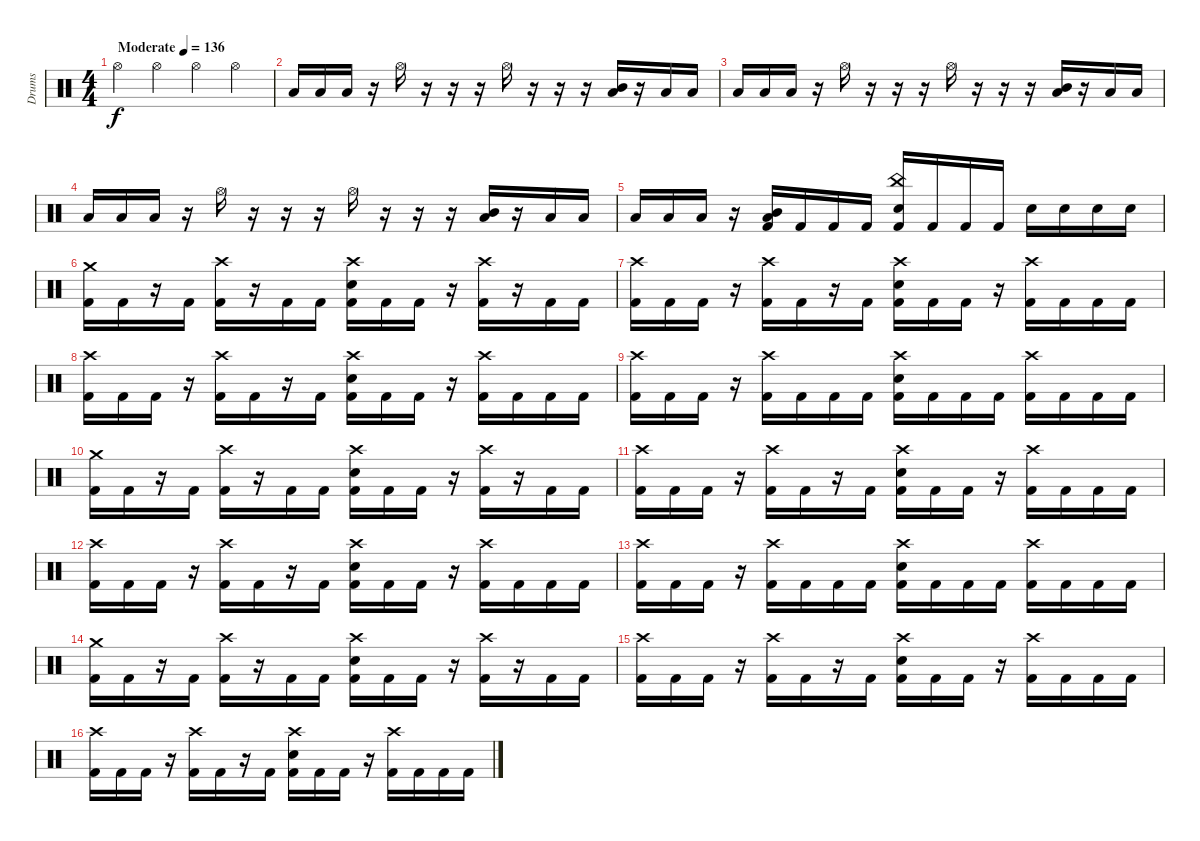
\track ("Drums" "Drums") {instrument percussion}
\staff {score}
\articulation defaults
\ts (4 4)
\tempo (136 "Moderate")
\clef neutral
\ks c "Hi-Hat (open)".4{dy f} "Hi-Hat (open)".4 "Hi-Hat (open)".4 "Hi-Hat (open)".4
|
"Low Tom (hit)".16 "Low Tom (hit)".16 "Low Tom (hit)".16 r.16 "Hi-Hat (open)".16 r.16 r.16 r.16 "Hi-Hat (open)".16 r.16 r.16 r.16 ("Mid Tom (hit)" "Low Tom (hit)").16 r.16 "Low Tom (hit)".16 "Low Tom (hit)".16 |
"Low Tom (hit)".16 "Low Tom (hit)".16 "Low Tom (hit)".16 r.16 "Hi-Hat (open)".16 r.16 r.16 r.16 "Hi-Hat (open)".16 r.16 r.16 r.16 ("Mid Tom (hit)" "Low Tom (hit)").16 r.16 "Low Tom (hit)".16 "Low Tom (hit)".16 |
"Low Tom (hit)".16 "Low Tom (hit)".16 "Low Tom (hit)".16 r.16 "Hi-Hat (open)".16 r.16 r.16 r.16 "Hi-Hat (open)".16 r.16 r.16 r.16 ("Mid Tom (hit)" "Low Tom (hit)").16 r.16 "Low Tom (hit)".16 "Low Tom (hit)".16 |
"Low Tom (hit)".16 "Low Tom (hit)".16 "Low Tom (hit)".16 r.16 ("Mid Tom (hit)" "Low Tom (hit)" "Kick (hit) 2").16 "Kick (hit) 2".16 "Kick (hit) 2".16 "Kick (hit) 2".16 ("China (hit)" "Snare (hit) 2" "Kick (hit) 2").16 "Kick (hit) 2".16 "Kick (hit) 2".16 "Kick (hit) 2".16 "Snare (hit) 2".16 "Snare (hit) 2".16 "Snare (hit) 2".16 "Snare (hit) 2".16 |
("Crash medium (hit)" "Kick (hit) 2").16 "Kick (hit) 2".16 r.16 "Kick (hit) 2".16 ("Crash high (hit)" "Kick (hit) 2").16 r.16 "Kick (hit) 2".16 "Kick (hit) 2".16 ("Crash high (hit)" "Snare (hit) 2" "Kick (hit) 2").16 "Kick (hit) 2".16 "Kick (hit) 2".16 r.16 ("Crash high (hit)" "Kick (hit) 2").16 r.16 "Kick (hit) 2".16 "Kick (hit) 2".16 |
("Crash high (hit)" "Kick (hit) 2").16 "Kick (hit) 2".16 "Kick (hit) 2".16 r.16 ("Crash high (hit)" "Kick (hit) 2").16 "Kick (hit) 2".16 r.16 "Kick (hit) 2".16 ("Crash high (hit)" "Snare (hit) 2" "Kick (hit) 2").16 "Kick (hit) 2".16 "Kick (hit) 2".16 r.16 ("Crash high (hit)" "Kick (hit) 2").16 "Kick (hit) 2".16 "Kick (hit) 2".16 "Kick (hit) 2".16 |
("Crash high (hit)" "Kick (hit) 2").16 "Kick (hit) 2".16 "Kick (hit) 2".16 r.16 ("Crash high (hit)" "Kick (hit) 2").16 "Kick (hit) 2".16 r.16 "Kick (hit) 2".16 ("Crash high (hit)" "Snare (hit) 2" "Kick (hit) 2").16 "Kick (hit) 2".16 "Kick (hit) 2".16 r.16 ("Crash high (hit)" "Kick (hit) 2").16 "Kick (hit) 2".16 "Kick (hit) 2".16 "Kick (hit) 2".16 |
("Crash high (hit)" "Kick (hit) 2").16 "Kick (hit) 2".16 "Kick (hit) 2".16 r.16 ("Crash high (hit)" "Kick (hit) 2").16 "Kick (hit) 2".16 "Kick (hit) 2".16 "Kick (hit) 2".16 ("Crash high (hit)" "Snare (hit) 2" "Kick (hit) 2").16 "Kick (hit) 2".16 "Kick (hit) 2".16 "Kick (hit) 2".16 ("Crash high (hit)" "Kick (hit) 2").16 "Kick (hit) 2".16 "Kick (hit) 2".16 "Kick (hit) 2".16 |
("Crash medium (hit)" "Kick (hit) 2").16 "Kick (hit) 2".16 r.16 "Kick (hit) 2".16 ("Crash high (hit)" "Kick (hit) 2").16 r.16 "Kick (hit) 2".16 "Kick (hit) 2".16 ("Crash high (hit)" "Snare (hit) 2" "Kick (hit) 2").16 "Kick (hit) 2".16 "Kick (hit) 2".16 r.16 ("Crash high (hit)" "Kick (hit) 2").16 r.16 "Kick (hit) 2".16 "Kick (hit) 2".16 |
("Crash high (hit)" "Kick (hit) 2").16 "Kick (hit) 2".16 "Kick (hit) 2".16 r.16 ("Crash high (hit)" "Kick (hit) 2").16 "Kick (hit) 2".16 r.16 "Kick (hit) 2".16 ("Crash high (hit)" "Snare (hit) 2" "Kick (hit) 2").16 "Kick (hit) 2".16 "Kick (hit) 2".16 r.16 ("Crash high (hit)" "Kick (hit) 2").16 "Kick (hit) 2".16 "Kick (hit) 2".16 "Kick (hit) 2".16 |
("Crash high (hit)" "Kick (hit) 2").16 "Kick (hit) 2".16 "Kick (hit) 2".16 r.16 ("Crash high (hit)" "Kick (hit) 2").16 "Kick (hit) 2".16 r.16 "Kick (hit) 2".16 ("Crash high (hit)" "Snare (hit) 2" "Kick (hit) 2").16 "Kick (hit) 2".16 "Kick (hit) 2".16 r.16 ("Crash high (hit)" "Kick (hit) 2").16 "Kick (hit) 2".16 "Kick (hit) 2".16 "Kick (hit) 2".16 |
("Crash high (hit)" "Kick (hit) 2").16 "Kick (hit) 2".16 "Kick (hit) 2".16 r.16 ("Crash high (hit)" "Kick (hit) 2").16 "Kick (hit) 2".16 "Kick (hit) 2".16 "Kick (hit) 2".16 ("Crash high (hit)" "Snare (hit) 2" "Kick (hit) 2").16 "Kick (hit) 2".16 "Kick (hit) 2".16 "Kick (hit) 2".16 ("Crash high (hit)" "Kick (hit) 2").16 "Kick (hit) 2".16 "Kick (hit) 2".16 "Kick (hit) 2".16 |
("Crash medium (hit)" "Kick (hit) 2").16 "Kick (hit) 2".16 r.16 "Kick (hit) 2".16 ("Crash high (hit)" "Kick (hit) 2").16 r.16 "Kick (hit) 2".16 "Kick (hit) 2".16 ("Crash high (hit)" "Snare (hit) 2" "Kick (hit) 2").16 "Kick (hit) 2".16 "Kick (hit) 2".16 r.16 ("Crash high (hit)" "Kick (hit) 2").16 r.16 "Kick (hit) 2".16 "Kick (hit) 2".16 |
("Crash high (hit)" "Kick (hit) 2").16 "Kick (hit) 2".16 "Kick (hit) 2".16 r.16 ("Crash high (hit)" "Kick (hit) 2").16 "Kick (hit) 2".16 r.16 "Kick (hit) 2".16 ("Crash high (hit)" "Snare (hit) 2" "Kick (hit) 2").16 "Kick (hit) 2".16 "Kick (hit) 2".16 r.16 ("Crash high (hit)" "Kick (hit) 2").16 "Kick (hit) 2".16 "Kick (hit) 2".16 "Kick (hit) 2".16 |
("Crash high (hit)" "Kick (hit) 2").16 "Kick (hit) 2".16 "Kick (hit) 2".16 r.16 ("Crash high (hit)" "Kick (hit) 2").16 "Kick (hit) 2".16 r.16 "Kick (hit) 2".16 ("Crash high (hit)" "Snare (hit) 2" "Kick (hit) 2").16 "Kick (hit) 2".16 "Kick (hit) 2".16 r.16 ("Crash high (hit)" "Kick (hit) 2").16 "Kick (hit) 2".16 "Kick (hit) 2".16 "Kick (hit) 2".16
